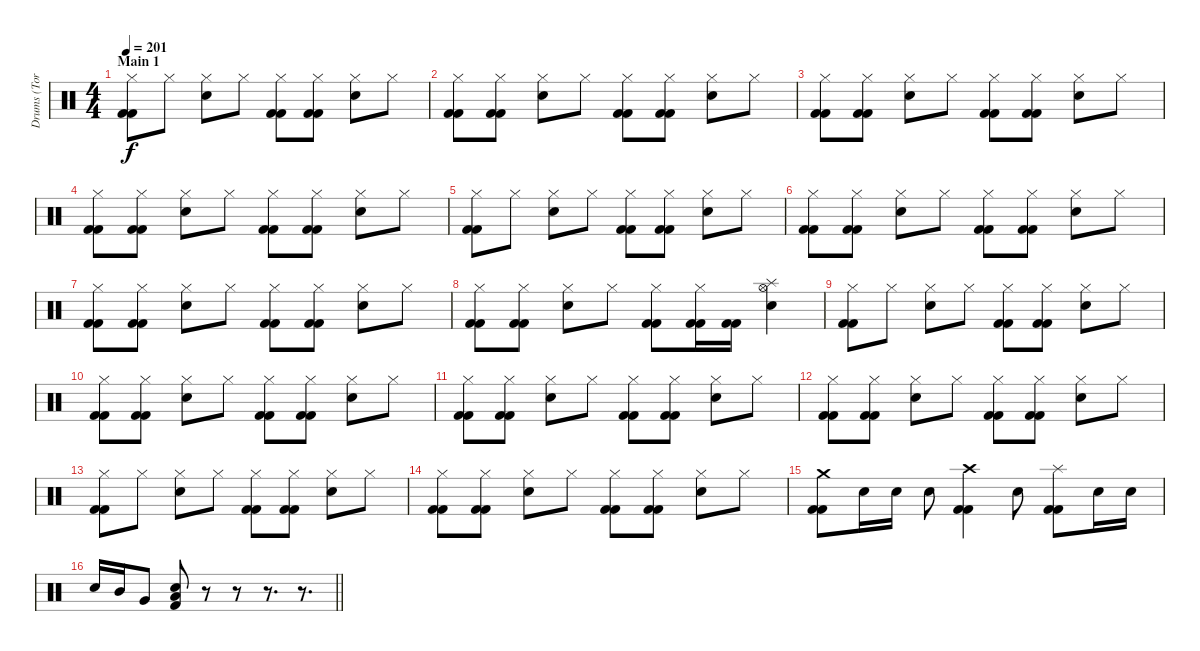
\track ("Drums (Tora)" "Drums (Tor") {instrument percussion}
\staff {score}
\articulation defaults
\ts (4 4)
\section ("" "Main 1")
\tempo 201
\clef neutral
\ks c
("Kick (hit) 2" "Kick (hit) 2" "Hi-Hat (closed)").8{dy f} "Hi-Hat (closed)".8 ("Snare (hit) 2" "Hi-Hat (closed)").8 "Hi-Hat (closed)".8 ("Kick (hit) 2" "Kick (hit) 2" "Hi-Hat (closed)").8 ("Kick (hit) 2" "Kick (hit) 2" "Hi-Hat (closed)").8 ("Snare (hit) 2" "Hi-Hat (closed)").8 "Hi-Hat (closed)".8 |
("Kick (hit) 2" "Kick (hit) 2" "Hi-Hat (closed)").8 ("Kick (hit) 2" "Kick (hit) 2" "Hi-Hat (closed)").8 ("Snare (hit) 2" "Hi-Hat (closed)").8 "Hi-Hat (closed)".8 ("Kick (hit) 2" "Kick (hit) 2" "Hi-Hat (closed)").8 ("Kick (hit) 2" "Kick (hit) 2" "Hi-Hat (closed)").8 ("Snare (hit) 2" "Hi-Hat (closed)").8 "Hi-Hat (closed)".8 |
("Kick (hit) 2" "Kick (hit) 2" "Hi-Hat (closed)").8 ("Kick (hit) 2" "Kick (hit) 2" "Hi-Hat (closed)").8 ("Snare (hit) 2" "Hi-Hat (closed)").8 "Hi-Hat (closed)".8 ("Kick (hit) 2" "Kick (hit) 2" "Hi-Hat (closed)").8 ("Kick (hit) 2" "Kick (hit) 2" "Hi-Hat (closed)").8 ("Snare (hit) 2" "Hi-Hat (closed)").8 "Hi-Hat (closed)".8 |
("Kick (hit) 2" "Kick (hit) 2" "Hi-Hat (closed)").8 ("Kick (hit) 2" "Kick (hit) 2" "Hi-Hat (closed)").8 ("Snare (hit) 2" "Hi-Hat (closed)").8 "Hi-Hat (closed)".8 ("Kick (hit) 2" "Kick (hit) 2" "Hi-Hat (closed)").8 ("Kick (hit) 2" "Kick (hit) 2" "Hi-Hat (closed)").8 ("Snare (hit) 2" "Hi-Hat (closed)").8 "Hi-Hat (closed)".8 |
("Kick (hit) 2" "Kick (hit) 2" "Hi-Hat (closed)").8 "Hi-Hat (closed)".8 ("Snare (hit) 2" "Hi-Hat (closed)").8 "Hi-Hat (closed)".8 ("Kick (hit) 2" "Kick (hit) 2" "Hi-Hat (closed)").8 ("Kick (hit) 2" "Kick (hit) 2" "Hi-Hat (closed)").8 ("Snare (hit) 2" "Hi-Hat (closed)").8 "Hi-Hat (closed)".8 |
("Kick (hit) 2" "Kick (hit) 2" "Hi-Hat (closed)").8 ("Kick (hit) 2" "Kick (hit) 2" "Hi-Hat (closed)").8 ("Snare (hit) 2" "Hi-Hat (closed)").8 "Hi-Hat (closed)".8 ("Kick (hit) 2" "Kick (hit) 2" "Hi-Hat (closed)").8 ("Kick (hit) 2" "Kick (hit) 2" "Hi-Hat (closed)").8 ("Snare (hit) 2" "Hi-Hat (closed)").8 "Hi-Hat (closed)".8 |
("Kick (hit) 2" "Kick (hit) 2" "Hi-Hat (closed)").8 ("Kick (hit) 2" "Kick (hit) 2" "Hi-Hat (closed)").8 ("Snare (hit) 2" "Hi-Hat (closed)").8 "Hi-Hat (closed)".8 ("Kick (hit) 2" "Kick (hit) 2" "Hi-Hat (closed)").8 ("Kick (hit) 2" "Kick (hit) 2" "Hi-Hat (closed)").8 ("Snare (hit) 2" "Hi-Hat (closed)").8 "Hi-Hat (closed)".8 |
("Kick (hit) 2" "Kick (hit) 2" "Hi-Hat (closed)").8 ("Kick (hit) 2" "Kick (hit) 2" "Hi-Hat (closed)").8 ("Snare (hit) 2" "Hi-Hat (closed)").8 "Hi-Hat (closed)".8 ("Hi-Hat (closed)" "Kick (hit) 2" "Kick (hit) 2").8 ("Hi-Hat (closed)" "Kick (hit) 2" "Kick (hit) 2").16 ("Kick (hit) 2" "Kick (hit) 2").16 ("Splash (hit)" "Hi-Hat (open)" "Snare (hit) 2").4 |
("Kick (hit) 2" "Kick (hit) 2" "Hi-Hat (closed)").8 "Hi-Hat (closed)".8 ("Snare (hit) 2" "Hi-Hat (closed)").8 "Hi-Hat (closed)".8 ("Kick (hit) 2" "Kick (hit) 2" "Hi-Hat (closed)").8 ("Kick (hit) 2" "Kick (hit) 2" "Hi-Hat (closed)").8 ("Snare (hit) 2" "Hi-Hat (closed)").8 "Hi-Hat (closed)".8 |
("Kick (hit) 2" "Kick (hit) 2" "Hi-Hat (closed)").8 ("Kick (hit) 2" "Kick (hit) 2" "Hi-Hat (closed)").8 ("Snare (hit) 2" "Hi-Hat (closed)").8 "Hi-Hat (closed)".8 ("Kick (hit) 2" "Kick (hit) 2" "Hi-Hat (closed)").8 ("Kick (hit) 2" "Kick (hit) 2" "Hi-Hat (closed)").8 ("Snare (hit) 2" "Hi-Hat (closed)").8 "Hi-Hat (closed)".8 |
("Kick (hit) 2" "Kick (hit) 2" "Hi-Hat (closed)").8 ("Kick (hit) 2" "Kick (hit) 2" "Hi-Hat (closed)").8 ("Snare (hit) 2" "Hi-Hat (closed)").8 "Hi-Hat (closed)".8 ("Kick (hit) 2" "Kick (hit) 2" "Hi-Hat (closed)").8 ("Kick (hit) 2" "Kick (hit) 2" "Hi-Hat (closed)").8 ("Snare (hit) 2" "Hi-Hat (closed)").8 "Hi-Hat (closed)".8 |
("Kick (hit) 2" "Kick (hit) 2" "Hi-Hat (closed)").8 ("Kick (hit) 2" "Kick (hit) 2" "Hi-Hat (closed)").8 ("Snare (hit) 2" "Hi-Hat (closed)").8 "Hi-Hat (closed)".8 ("Kick (hit) 2" "Kick (hit) 2" "Hi-Hat (closed)").8 ("Kick (hit) 2" "Kick (hit) 2" "Hi-Hat (closed)").8 ("Snare (hit) 2" "Hi-Hat (closed)").8 "Hi-Hat (closed)".8 |
("Kick (hit) 2" "Kick (hit) 2" "Hi-Hat (closed)").8 "Hi-Hat (closed)".8 ("Snare (hit) 2" "Hi-Hat (closed)").8 "Hi-Hat (closed)".8 ("Kick (hit) 2" "Kick (hit) 2" "Hi-Hat (closed)").8 ("Kick (hit) 2" "Kick (hit) 2" "Hi-Hat (closed)").8 ("Snare (hit) 2" "Hi-Hat (closed)").8 "Hi-Hat (closed)".8 |
("Kick (hit) 2" "Kick (hit) 2" "Hi-Hat (closed)").8 ("Kick (hit) 2" "Kick (hit) 2" "Hi-Hat (closed)").8 ("Snare (hit) 2" "Hi-Hat (closed)").8 "Hi-Hat (closed)".8 ("Kick (hit) 2" "Kick (hit) 2" "Hi-Hat (closed)").8 ("Kick (hit) 2" "Kick (hit) 2" "Hi-Hat (closed)").8 ("Snare (hit) 2" "Hi-Hat (closed)").8 "Hi-Hat (closed)".8 |
("Crash medium (hit)" "Kick (hit) 2" "Kick (hit) 2").8 "Snare (hit) 2".16 "Snare (hit) 2".16 "Snare (hit) 2".8 ("Crash high (hit)" "Kick (hit) 2" "Kick (hit) 2").4 "Snare (hit) 2".8 ("Splash (hit)" "Kick (hit) 2" "Kick (hit) 2").8 "Snare (hit) 2".16 "Snare (hit) 2".16 |
\barLineRight lightlight "Snare (hit) 2".16 "Mid Tom (hit)".16 "Very Low Tom (hit)".8
("Low Floor Tom (hit)" "Kick (hit) 2" "Snare (hit) 2").8 r.8 r.8 r.8{d} r.8{d}
